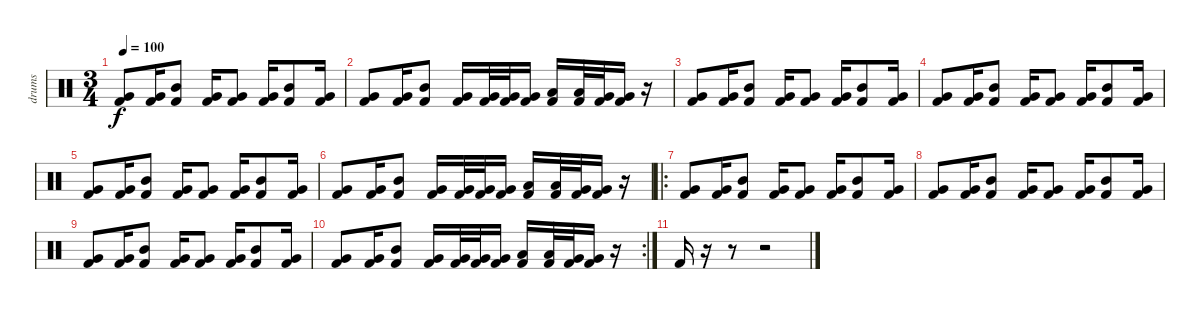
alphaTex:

\track ("drums" "drums") {instrument percussion}
\staff {score}
\articulation defaults
\ts (3 4)
\tempo 100
\clef neutral
\ks c
("Kick (hit) 2" "Very Low Tom (hit)").8{dy f} ("Kick (hit) 2" "Very Low Tom (hit)").16 ("Kick (hit) 2" "Mid Tom (hit)").8 ("Kick (hit) 2" "Very Low Tom (hit)").16 ("Kick (hit) 2" "Very Low Tom (hit)").8 ("Kick (hit) 2" "Very Low Tom (hit)").16 ("Kick (hit) 2" "Mid Tom (hit)").8 ("Kick (hit) 2" "Very Low Tom (hit)").16 |
("Kick (hit) 2" "Very Low Tom (hit)").8 ("Kick (hit) 2" "Very Low Tom (hit)").16 ("Kick (hit) 2" "Mid Tom (hit)").8 ("Kick (hit) 2" "Very Low Tom (hit)").16 ("Kick (hit) 2" "Very Low Tom (hit)").32 ("Kick (hit) 2" "Very Low Tom (hit)").32 ("Kick (hit) 2" "Very Low Tom (hit)").16 ("Kick (hit) 2" "Low Tom (hit)").16 ("Kick (hit) 2" "Low Tom (hit)").32 ("Kick (hit) 2" "Very Low Tom (hit)").32 ("Kick (hit) 2" "Very Low Tom (hit)").16 r.16 |
("Kick (hit) 2" "Very Low Tom (hit)").8 ("Kick (hit) 2" "Very Low Tom (hit)").16 ("Kick (hit) 2" "Mid Tom (hit)").8 ("Kick (hit) 2" "Very Low Tom (hit)").16 ("Kick (hit) 2" "Very Low Tom (hit)").8 ("Kick (hit) 2" "Very Low Tom (hit)").16 ("Kick (hit) 2" "Mid Tom (hit)").8 ("Kick (hit) 2" "Very Low Tom (hit)").16 |
("Kick (hit) 2" "Very Low Tom (hit)").8 ("Kick (hit) 2" "Very Low Tom (hit)").16 ("Kick (hit) 2" "Mid Tom (hit)").8 ("Kick (hit) 2" "Very Low Tom (hit)").16 ("Kick (hit) 2" "Very Low Tom (hit)").8 ("Kick (hit) 2" "Very Low Tom (hit)").16 ("Kick (hit) 2" "Mid Tom (hit)").8 ("Kick (hit) 2" "Very Low Tom (hit)").16 |
("Kick (hit) 2" "Very Low Tom (hit)").8 ("Kick (hit) 2" "Very Low Tom (hit)").16 ("Kick (hit) 2" "Mid Tom (hit)").8 ("Kick (hit) 2" "Very Low Tom (hit)").16 ("Kick (hit) 2" "Very Low Tom (hit)").8 ("Kick (hit) 2" "Very Low Tom (hit)").16 ("Kick (hit) 2" "Mid Tom (hit)").8 ("Kick (hit) 2" "Very Low Tom (hit)").16 |
("Kick (hit) 2" "Very Low Tom (hit)").8 ("Kick (hit) 2" "Very Low Tom (hit)").16 ("Kick (hit) 2" "Mid Tom (hit)").8 ("Kick (hit) 2" "Very Low Tom (hit)").16 ("Kick (hit) 2" "Very Low Tom (hit)").32 ("Kick (hit) 2" "Very Low Tom (hit)").32 ("Kick (hit) 2" "Very Low Tom (hit)").16 ("Kick (hit) 2" "Low Tom (hit)").16 ("Kick (hit) 2" "Low Tom (hit)").32 ("Kick (hit) 2" "Very Low Tom (hit)").32 ("Kick (hit) 2" "Very Low Tom (hit)").16 r.16 |
\ro
("Kick (hit) 2" "Very Low Tom (hit)").8 ("Kick (hit) 2" "Very Low Tom (hit)").16 ("Kick (hit) 2" "Mid Tom (hit)").8 ("Kick (hit) 2" "Very Low Tom (hit)").16 ("Kick (hit) 2" "Very Low Tom (hit)").8 ("Kick (hit) 2" "Very Low Tom (hit)").16 ("Kick (hit) 2" "Mid Tom (hit)").8 ("Kick (hit) 2" "Very Low Tom (hit)").16 |
("Kick (hit) 2" "Very Low Tom (hit)").8 ("Kick (hit) 2" "Very Low Tom (hit)").16 ("Kick (hit) 2" "Mid Tom (hit)").8 ("Kick (hit) 2" "Very Low Tom (hit)").16 ("Kick (hit) 2" "Very Low Tom (hit)").8 ("Kick (hit) 2" "Very Low Tom (hit)").16 ("Kick (hit) 2" "Mid Tom (hit)").8 ("Kick (hit) 2" "Very Low Tom (hit)").16 |
("Kick (hit) 2" "Very Low Tom (hit)").8 ("Kick (hit) 2" "Very Low Tom (hit)").16 ("Kick (hit) 2" "Mid Tom (hit)").8 ("Kick (hit) 2" "Very Low Tom (hit)").16 ("Kick (hit) 2" "Very Low Tom (hit)").8 ("Kick (hit) 2" "Very Low Tom (hit)").16 ("Kick (hit) 2" "Mid Tom (hit)").8 ("Kick (hit) 2" "Very Low Tom (hit)").16 |
\rc 2
("Kick (hit) 2" "Very Low Tom (hit)").8 ("Kick (hit) 2" "Very Low Tom (hit)").16 ("Kick (hit) 2" "Mid Tom (hit)").8 ("Kick (hit) 2" "Very Low Tom (hit)").16 ("Kick (hit) 2" "Very Low Tom (hit)").32 ("Kick (hit) 2" "Very Low Tom (hit)").32 ("Kick (hit) 2" "Very Low Tom (hit)").16 ("Kick (hit) 2" "Low Tom (hit)").16 ("Kick (hit) 2" "Low Tom (hit)").32 ("Kick (hit) 2" "Very Low Tom (hit)").32 ("Kick (hit) 2" "Very Low Tom (hit)").16 r.16 |
"Kick (hit) 2".16 r.16 r.8 r.2
